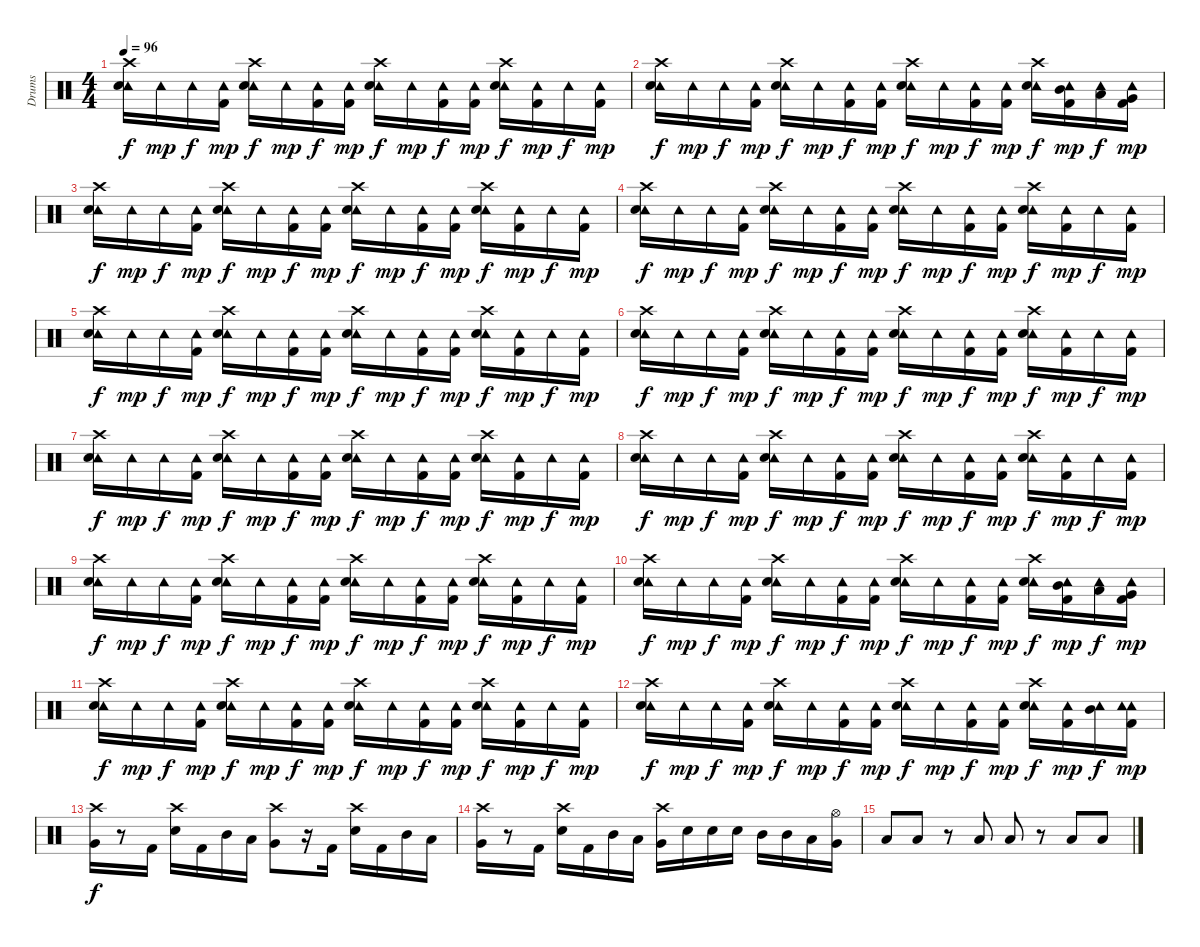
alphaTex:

\track ("Drums" "Drums") {instrument percussion}
\staff {score}
\articulation defaults
\ts (4 4)
\tempo 96
\clef neutral
\ks c
("Crash high (hit)" "Tambourine (hit)" "Electric Snare (hit)").16{dy f} "Tambourine (hit)".16{dy mp} "Tambourine (hit)".16{dy f} ("Tambourine (hit)" "Kick (hit) 2").16{dy mp} ("Crash high (hit)" "Tambourine (hit)" "Electric Snare (hit)").16{dy f} "Tambourine (hit)".16{dy mp} ("Tambourine (hit)" "Kick (hit) 2").16{dy f} ("Tambourine (hit)" "Kick (hit) 2").16{dy mp} ("Crash high (hit)" "Tambourine (hit)" "Electric Snare (hit)").16{dy f} "Tambourine (hit)".16{dy mp} ("Tambourine (hit)" "Kick (hit) 2").16{dy f} ("Tambourine (hit)" "Kick (hit) 2").16{dy mp} ("Crash high (hit)" "Tambourine (hit)" "Electric Snare (hit)").16{dy f} ("Tambourine (hit)" "Kick (hit) 2").16{dy mp} "Tambourine (hit)".16{dy f} ("Tambourine (hit)" "Kick (hit) 2").16{dy mp} |
("Crash high (hit)" "Tambourine (hit)" "Electric Snare (hit)").16{dy f} "Tambourine (hit)".16{dy mp} "Tambourine (hit)".16{dy f} ("Tambourine (hit)" "Kick (hit) 2").16{dy mp} ("Crash high (hit)" "Tambourine (hit)" "Electric Snare (hit)").16{dy f} "Tambourine (hit)".16{dy mp} ("Tambourine (hit)" "Kick (hit) 2").16{dy f} ("Tambourine (hit)" "Kick (hit) 2").16{dy mp} ("Crash high (hit)" "Tambourine (hit)" "Electric Snare (hit)").16{dy f} "Tambourine (hit)".16{dy mp} ("Tambourine (hit)" "Kick (hit) 2").16{dy f} ("Tambourine (hit)" "Kick (hit) 2").16{dy mp} ("Crash high (hit)" "Tambourine (hit)" "Electric Snare (hit)").16{dy f} ("Tambourine (hit)" "Mid Tom (hit)" "Kick (hit) 2").16{dy mp} ("Tambourine (hit)" "Low Tom (hit)").16{dy f} ("Tambourine (hit)" "Very Low Tom (hit)" "Kick (hit) 2").16{dy mp} |
("Crash high (hit)" "Tambourine (hit)" "Electric Snare (hit)").16{dy f} "Tambourine (hit)".16{dy mp} "Tambourine (hit)".16{dy f} ("Tambourine (hit)" "Kick (hit) 2").16{dy mp} ("Crash high (hit)" "Tambourine (hit)" "Electric Snare (hit)").16{dy f} "Tambourine (hit)".16{dy mp} ("Tambourine (hit)" "Kick (hit) 2").16{dy f} ("Tambourine (hit)" "Kick (hit) 2").16{dy mp} ("Crash high (hit)" "Tambourine (hit)" "Electric Snare (hit)").16{dy f} "Tambourine (hit)".16{dy mp} ("Tambourine (hit)" "Kick (hit) 2").16{dy f} ("Tambourine (hit)" "Kick (hit) 2").16{dy mp} ("Crash high (hit)" "Tambourine (hit)" "Electric Snare (hit)").16{dy f} ("Tambourine (hit)" "Kick (hit) 2").16{dy mp} "Tambourine (hit)".16{dy f} ("Tambourine (hit)" "Kick (hit) 2").16{dy mp} |
("Crash high (hit)" "Tambourine (hit)" "Electric Snare (hit)").16{dy f} "Tambourine (hit)".16{dy mp} "Tambourine (hit)".16{dy f} ("Tambourine (hit)" "Kick (hit) 2").16{dy mp} ("Crash high (hit)" "Tambourine (hit)" "Electric Snare (hit)").16{dy f} "Tambourine (hit)".16{dy mp} ("Tambourine (hit)" "Kick (hit) 2").16{dy f} ("Tambourine (hit)" "Kick (hit) 2").16{dy mp} ("Crash high (hit)" "Tambourine (hit)" "Electric Snare (hit)").16{dy f} "Tambourine (hit)".16{dy mp} ("Tambourine (hit)" "Kick (hit) 2").16{dy f} ("Tambourine (hit)" "Kick (hit) 2").16{dy mp} ("Crash high (hit)" "Tambourine (hit)" "Electric Snare (hit)").16{dy f} ("Tambourine (hit)" "Kick (hit) 2").16{dy mp} "Tambourine (hit)".16{dy f} ("Tambourine (hit)" "Kick (hit) 2").16{dy mp} |
("Crash high (hit)" "Tambourine (hit)" "Electric Snare (hit)").16{dy f} "Tambourine (hit)".16{dy mp} "Tambourine (hit)".16{dy f} ("Tambourine (hit)" "Kick (hit) 2").16{dy mp} ("Crash high (hit)" "Tambourine (hit)" "Electric Snare (hit)").16{dy f} "Tambourine (hit)".16{dy mp} ("Tambourine (hit)" "Kick (hit) 2").16{dy f} ("Tambourine (hit)" "Kick (hit) 2").16{dy mp} ("Crash high (hit)" "Tambourine (hit)" "Electric Snare (hit)").16{dy f} "Tambourine (hit)".16{dy mp} ("Tambourine (hit)" "Kick (hit) 2").16{dy f} ("Tambourine (hit)" "Kick (hit) 2").16{dy mp} ("Crash high (hit)" "Tambourine (hit)" "Electric Snare (hit)").16{dy f} ("Tambourine (hit)" "Kick (hit) 2").16{dy mp} "Tambourine (hit)".16{dy f} ("Tambourine (hit)" "Kick (hit) 2").16{dy mp} |
("Crash high (hit)" "Tambourine (hit)" "Electric Snare (hit)").16{dy f} "Tambourine (hit)".16{dy mp} "Tambourine (hit)".16{dy f} ("Tambourine (hit)" "Kick (hit) 2").16{dy mp} ("Crash high (hit)" "Tambourine (hit)" "Electric Snare (hit)").16{dy f} "Tambourine (hit)".16{dy mp} ("Tambourine (hit)" "Kick (hit) 2").16{dy f} ("Tambourine (hit)" "Kick (hit) 2").16{dy mp} ("Crash high (hit)" "Tambourine (hit)" "Electric Snare (hit)").16{dy f} "Tambourine (hit)".16{dy mp} ("Tambourine (hit)" "Kick (hit) 2").16{dy f} ("Tambourine (hit)" "Kick (hit) 2").16{dy mp} ("Crash high (hit)" "Tambourine (hit)" "Electric Snare (hit)").16{dy f} ("Tambourine (hit)" "Kick (hit) 2").16{dy mp} "Tambourine (hit)".16{dy f} ("Tambourine (hit)" "Kick (hit) 2").16{dy mp} |
("Crash high (hit)" "Tambourine (hit)" "Electric Snare (hit)").16{dy f} "Tambourine (hit)".16{dy mp} "Tambourine (hit)".16{dy f} ("Tambourine (hit)" "Kick (hit) 2").16{dy mp} ("Crash high (hit)" "Tambourine (hit)" "Electric Snare (hit)").16{dy f} "Tambourine (hit)".16{dy mp} ("Tambourine (hit)" "Kick (hit) 2").16{dy f} ("Tambourine (hit)" "Kick (hit) 2").16{dy mp} ("Crash high (hit)" "Tambourine (hit)" "Electric Snare (hit)").16{dy f} "Tambourine (hit)".16{dy mp} ("Tambourine (hit)" "Kick (hit) 2").16{dy f} ("Tambourine (hit)" "Kick (hit) 2").16{dy mp} ("Crash high (hit)" "Tambourine (hit)" "Electric Snare (hit)").16{dy f} ("Tambourine (hit)" "Kick (hit) 2").16{dy mp} "Tambourine (hit)".16{dy f} ("Tambourine (hit)" "Kick (hit) 2").16{dy mp} |
("Crash high (hit)" "Tambourine (hit)" "Electric Snare (hit)").16{dy f} "Tambourine (hit)".16{dy mp} "Tambourine (hit)".16{dy f} ("Tambourine (hit)" "Kick (hit) 2").16{dy mp} ("Crash high (hit)" "Tambourine (hit)" "Electric Snare (hit)").16{dy f} "Tambourine (hit)".16{dy mp} ("Tambourine (hit)" "Kick (hit) 2").16{dy f} ("Tambourine (hit)" "Kick (hit) 2").16{dy mp} ("Crash high (hit)" "Tambourine (hit)" "Electric Snare (hit)").16{dy f} "Tambourine (hit)".16{dy mp} ("Tambourine (hit)" "Kick (hit) 2").16{dy f} ("Tambourine (hit)" "Kick (hit) 2").16{dy mp} ("Crash high (hit)" "Tambourine (hit)" "Electric Snare (hit)").16{dy f} ("Tambourine (hit)" "Kick (hit) 2").16{dy mp} "Tambourine (hit)".16{dy f} ("Tambourine (hit)" "Kick (hit) 2").16{dy mp} |
("Crash high (hit)" "Tambourine (hit)" "Electric Snare (hit)").16{dy f} "Tambourine (hit)".16{dy mp} "Tambourine (hit)".16{dy f} ("Tambourine (hit)" "Kick (hit) 2").16{dy mp} ("Crash high (hit)" "Tambourine (hit)" "Electric Snare (hit)").16{dy f} "Tambourine (hit)".16{dy mp} ("Tambourine (hit)" "Kick (hit) 2").16{dy f} ("Tambourine (hit)" "Kick (hit) 2").16{dy mp} ("Crash high (hit)" "Tambourine (hit)" "Electric Snare (hit)").16{dy f} "Tambourine (hit)".16{dy mp} ("Tambourine (hit)" "Kick (hit) 2").16{dy f} ("Tambourine (hit)" "Kick (hit) 2").16{dy mp} ("Crash high (hit)" "Tambourine (hit)" "Electric Snare (hit)").16{dy f} ("Tambourine (hit)" "Kick (hit) 2").16{dy mp} "Tambourine (hit)".16{dy f} ("Tambourine (hit)" "Kick (hit) 2").16{dy mp} |
("Crash high (hit)" "Tambourine (hit)" "Electric Snare (hit)").16{dy f} "Tambourine (hit)".16{dy mp} "Tambourine (hit)".16{dy f} ("Tambourine (hit)" "Kick (hit) 2").16{dy mp} ("Crash high (hit)" "Tambourine (hit)" "Electric Snare (hit)").16{dy f} "Tambourine (hit)".16{dy mp} ("Tambourine (hit)" "Kick (hit) 2").16{dy f} ("Tambourine (hit)" "Kick (hit) 2").16{dy mp} ("Crash high (hit)" "Tambourine (hit)" "Electric Snare (hit)").16{dy f} "Tambourine (hit)".16{dy mp} ("Tambourine (hit)" "Kick (hit) 2").16{dy f} ("Tambourine (hit)" "Kick (hit) 2").16{dy mp} ("Crash high (hit)" "Tambourine (hit)" "Electric Snare (hit)").16{dy f} ("Tambourine (hit)" "Mid Tom (hit)" "Kick (hit) 2").16{dy mp} ("Tambourine (hit)" "Low Tom (hit)").16{dy f} ("Tambourine (hit)" "Very Low Tom (hit)" "Kick (hit) 2").16{dy mp} |
("Crash high (hit)" "Tambourine (hit)" "Electric Snare (hit)").16{dy f} "Tambourine (hit)".16{dy mp} "Tambourine (hit)".16{dy f} ("Tambourine (hit)" "Kick (hit) 2").16{dy mp} ("Crash high (hit)" "Tambourine (hit)" "Electric Snare (hit)").16{dy f} "Tambourine (hit)".16{dy mp} ("Tambourine (hit)" "Kick (hit) 2").16{dy f} ("Tambourine (hit)" "Kick (hit) 2").16{dy mp} ("Crash high (hit)" "Tambourine (hit)" "Electric Snare (hit)").16{dy f} "Tambourine (hit)".16{dy mp} ("Tambourine (hit)" "Kick (hit) 2").16{dy f} ("Tambourine (hit)" "Kick (hit) 2").16{dy mp} ("Crash high (hit)" "Tambourine (hit)" "Electric Snare (hit)").16{dy f} ("Tambourine (hit)" "Kick (hit) 2").16{dy mp} "Tambourine (hit)".16{dy f} ("Tambourine (hit)" "Kick (hit) 2").16{dy mp} |
("Crash high (hit)" "Tambourine (hit)" "Electric Snare (hit)").16{dy f} "Tambourine (hit)".16{dy mp} "Tambourine (hit)".16{dy f} ("Tambourine (hit)" "Kick (hit) 2").16{dy mp} ("Crash high (hit)" "Tambourine (hit)" "Electric Snare (hit)").16{dy f} "Tambourine (hit)".16{dy mp} ("Tambourine (hit)" "Kick (hit) 2").16{dy f} ("Tambourine (hit)" "Kick (hit) 2").16{dy mp} ("Crash high (hit)" "Tambourine (hit)" "Electric Snare (hit)").16{dy f} "Tambourine (hit)".16{dy mp} ("Tambourine (hit)" "Kick (hit) 2").16{dy f} ("Tambourine (hit)" "Kick (hit) 2").16{dy mp} ("Crash high (hit)" "Tambourine (hit)" "Electric Snare (hit)").16{dy f} ("Tambourine (hit)" "Kick (hit) 2").16{dy mp} ("Tambourine (hit)" "Mid Tom (hit)").16{dy f} ("Tambourine (hit)" "Tambourine (hit)" "Kick (hit) 2").16{dy mp} |
("Crash high (hit)" "Very Low Tom (hit)").16{dy f} r.8 "Kick (hit) 2".16 ("Crash high (hit)" "Electric Snare (hit)").16 "Kick (hit) 2".16 "Mid Tom (hit)".16 "Low Tom (hit)".16 ("Crash high (hit)" "Very Low Tom (hit)").8 r.16 "Kick (hit) 2".16 ("Crash high (hit)" "Electric Snare (hit)").16 "Kick (hit) 2".16 "Mid Tom (hit)".16 "Low Tom (hit)".16 |
("Crash high (hit)" "Very Low Tom (hit)").16 r.8 "Kick (hit) 2".16 ("Crash high (hit)" "Electric Snare (hit)").16 "Kick (hit) 2".16 "Mid Tom (hit)".16 "Low Tom (hit)".16 ("Crash high (hit)" "Very Low Tom (hit)").16 "Electric Snare (hit)".16 "Electric Snare (hit)".16 "Electric Snare (hit)".16 "Mid Tom (hit)".16 "Mid Tom (hit)".16 "Low Tom (hit)".16 ("Hi-Hat (open)" "Very Low Tom (hit)").16 |
"Low Floor Tom (hit)".8 "Low Floor Tom (hit)".8 r.8 "Low Floor Tom (hit)".8 "Low Floor Tom (hit)".8 r.8 "Low Floor Tom (hit)".8 "Low Floor Tom (hit)".8
